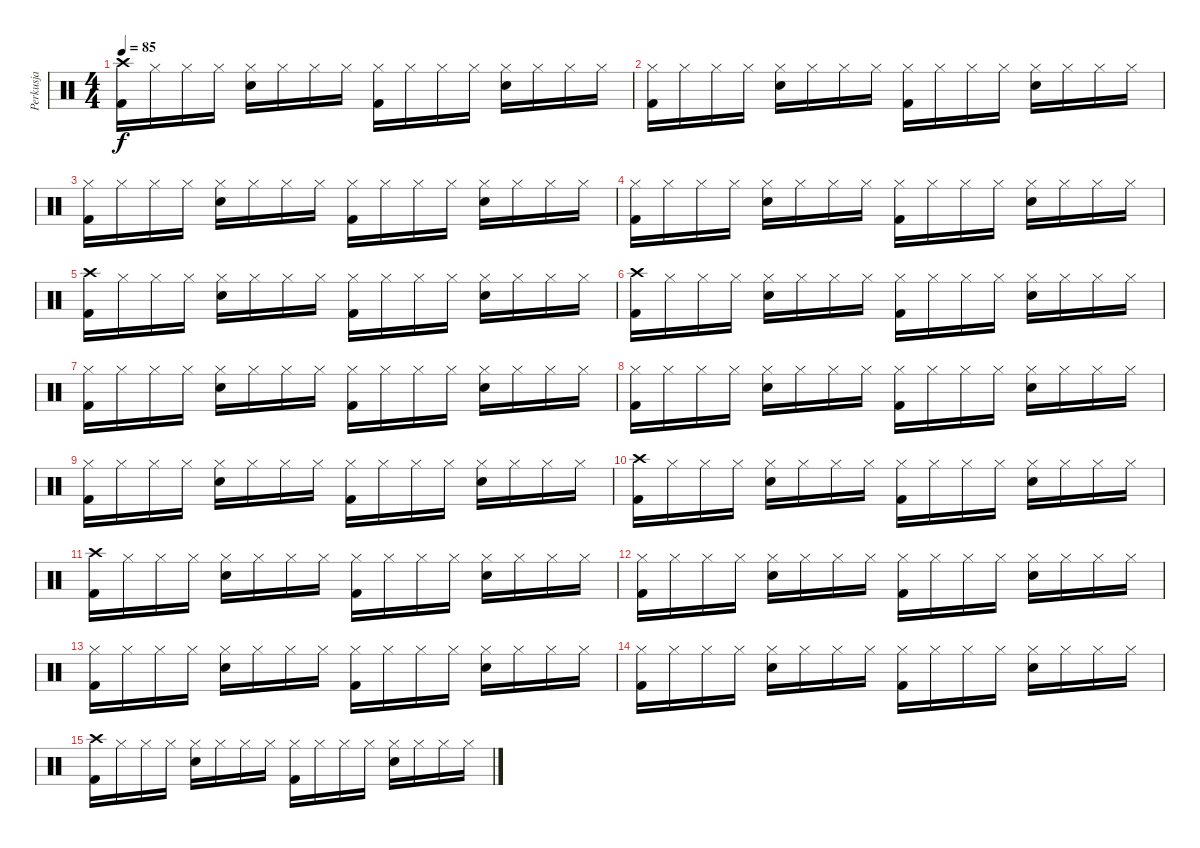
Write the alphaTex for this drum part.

\track ("Perkusja" "Perkusja") {instrument percussion}
\staff {score}
\articulation defaults
\ts (4 4)
\tempo 85
\clef neutral
\ks c
("Crash high (hit)" "Kick (hit) 2").16{dy f} "Hi-Hat (closed)".16 "Hi-Hat (closed)".16 "Hi-Hat (closed)".16 ("Hi-Hat (closed)" "Electric Snare (hit)").16 "Hi-Hat (closed)".16 "Hi-Hat (closed)".16 "Hi-Hat (closed)".16 ("Hi-Hat (closed)" "Kick (hit) 2").16 "Hi-Hat (closed)".16 "Hi-Hat (closed)".16 "Hi-Hat (closed)".16 ("Hi-Hat (closed)" "Electric Snare (hit)").16 "Hi-Hat (closed)".16 "Hi-Hat (closed)".16 "Hi-Hat (closed)".16 |
("Hi-Hat (closed)" "Kick (hit) 2").16 "Hi-Hat (closed)".16 "Hi-Hat (closed)".16 "Hi-Hat (closed)".16 ("Hi-Hat (closed)" "Electric Snare (hit)").16 "Hi-Hat (closed)".16 "Hi-Hat (closed)".16 "Hi-Hat (closed)".16 ("Hi-Hat (closed)" "Kick (hit) 2").16 "Hi-Hat (closed)".16 "Hi-Hat (closed)".16 "Hi-Hat (closed)".16 ("Hi-Hat (closed)" "Electric Snare (hit)").16 "Hi-Hat (closed)".16 "Hi-Hat (closed)".16 "Hi-Hat (closed)".16 |
("Hi-Hat (closed)" "Kick (hit) 2").16 "Hi-Hat (closed)".16 "Hi-Hat (closed)".16 "Hi-Hat (closed)".16 ("Hi-Hat (closed)" "Electric Snare (hit)").16 "Hi-Hat (closed)".16 "Hi-Hat (closed)".16 "Hi-Hat (closed)".16 ("Hi-Hat (closed)" "Kick (hit) 2").16 "Hi-Hat (closed)".16 "Hi-Hat (closed)".16 "Hi-Hat (closed)".16 ("Hi-Hat (closed)" "Electric Snare (hit)").16 "Hi-Hat (closed)".16 "Hi-Hat (closed)".16 "Hi-Hat (closed)".16 |
("Hi-Hat (closed)" "Kick (hit) 2").16 "Hi-Hat (closed)".16 "Hi-Hat (closed)".16 "Hi-Hat (closed)".16 ("Hi-Hat (closed)" "Electric Snare (hit)").16 "Hi-Hat (closed)".16 "Hi-Hat (closed)".16 "Hi-Hat (closed)".16 ("Hi-Hat (closed)" "Kick (hit) 2").16 "Hi-Hat (closed)".16 "Hi-Hat (closed)".16 "Hi-Hat (closed)".16 ("Hi-Hat (closed)" "Electric Snare (hit)").16 "Hi-Hat (closed)".16 "Hi-Hat (closed)".16 "Hi-Hat (closed)".16 |
("Crash high (hit)" "Kick (hit) 2").16 "Hi-Hat (closed)".16 "Hi-Hat (closed)".16 "Hi-Hat (closed)".16 ("Hi-Hat (closed)" "Electric Snare (hit)").16 "Hi-Hat (closed)".16 "Hi-Hat (closed)".16 "Hi-Hat (closed)".16 ("Hi-Hat (closed)" "Kick (hit) 2").16 "Hi-Hat (closed)".16 "Hi-Hat (closed)".16 "Hi-Hat (closed)".16 ("Hi-Hat (closed)" "Electric Snare (hit)").16 "Hi-Hat (closed)".16 "Hi-Hat (closed)".16 "Hi-Hat (closed)".16 |
("Crash high (hit)" "Kick (hit) 2").16 "Hi-Hat (closed)".16 "Hi-Hat (closed)".16 "Hi-Hat (closed)".16 ("Hi-Hat (closed)" "Electric Snare (hit)").16 "Hi-Hat (closed)".16 "Hi-Hat (closed)".16 "Hi-Hat (closed)".16 ("Hi-Hat (closed)" "Kick (hit) 2").16 "Hi-Hat (closed)".16 "Hi-Hat (closed)".16 "Hi-Hat (closed)".16 ("Hi-Hat (closed)" "Electric Snare (hit)").16 "Hi-Hat (closed)".16 "Hi-Hat (closed)".16 "Hi-Hat (closed)".16 |
("Hi-Hat (closed)" "Kick (hit) 2").16 "Hi-Hat (closed)".16 "Hi-Hat (closed)".16 "Hi-Hat (closed)".16 ("Hi-Hat (closed)" "Electric Snare (hit)").16 "Hi-Hat (closed)".16 "Hi-Hat (closed)".16 "Hi-Hat (closed)".16 ("Hi-Hat (closed)" "Kick (hit) 2").16 "Hi-Hat (closed)".16 "Hi-Hat (closed)".16 "Hi-Hat (closed)".16 ("Hi-Hat (closed)" "Electric Snare (hit)").16 "Hi-Hat (closed)".16 "Hi-Hat (closed)".16 "Hi-Hat (closed)".16 |
("Hi-Hat (closed)" "Kick (hit) 2").16 "Hi-Hat (closed)".16 "Hi-Hat (closed)".16 "Hi-Hat (closed)".16 ("Hi-Hat (closed)" "Electric Snare (hit)").16 "Hi-Hat (closed)".16 "Hi-Hat (closed)".16 "Hi-Hat (closed)".16 ("Hi-Hat (closed)" "Kick (hit) 2").16 "Hi-Hat (closed)".16 "Hi-Hat (closed)".16 "Hi-Hat (closed)".16 ("Hi-Hat (closed)" "Electric Snare (hit)").16 "Hi-Hat (closed)".16 "Hi-Hat (closed)".16 "Hi-Hat (closed)".16 |
("Hi-Hat (closed)" "Kick (hit) 2").16 "Hi-Hat (closed)".16 "Hi-Hat (closed)".16 "Hi-Hat (closed)".16 ("Hi-Hat (closed)" "Electric Snare (hit)").16 "Hi-Hat (closed)".16 "Hi-Hat (closed)".16 "Hi-Hat (closed)".16 ("Hi-Hat (closed)" "Kick (hit) 2").16 "Hi-Hat (closed)".16 "Hi-Hat (closed)".16 "Hi-Hat (closed)".16 ("Hi-Hat (closed)" "Electric Snare (hit)").16 "Hi-Hat (closed)".16 "Hi-Hat (closed)".16 "Hi-Hat (closed)".16 |
("Crash high (hit)" "Kick (hit) 2").16 "Hi-Hat (closed)".16 "Hi-Hat (closed)".16 "Hi-Hat (closed)".16 ("Hi-Hat (closed)" "Electric Snare (hit)").16 "Hi-Hat (closed)".16 "Hi-Hat (closed)".16 "Hi-Hat (closed)".16 ("Hi-Hat (closed)" "Kick (hit) 2").16 "Hi-Hat (closed)".16 "Hi-Hat (closed)".16 "Hi-Hat (closed)".16 ("Hi-Hat (closed)" "Electric Snare (hit)").16 "Hi-Hat (closed)".16 "Hi-Hat (closed)".16 "Hi-Hat (closed)".16 |
("Crash high (hit)" "Kick (hit) 2").16 "Hi-Hat (closed)".16 "Hi-Hat (closed)".16 "Hi-Hat (closed)".16 ("Hi-Hat (closed)" "Electric Snare (hit)").16 "Hi-Hat (closed)".16 "Hi-Hat (closed)".16 "Hi-Hat (closed)".16 ("Hi-Hat (closed)" "Kick (hit) 2").16 "Hi-Hat (closed)".16 "Hi-Hat (closed)".16 "Hi-Hat (closed)".16 ("Hi-Hat (closed)" "Electric Snare (hit)").16 "Hi-Hat (closed)".16 "Hi-Hat (closed)".16 "Hi-Hat (closed)".16 |
("Hi-Hat (closed)" "Kick (hit) 2").16 "Hi-Hat (closed)".16 "Hi-Hat (closed)".16 "Hi-Hat (closed)".16 ("Hi-Hat (closed)" "Electric Snare (hit)").16 "Hi-Hat (closed)".16 "Hi-Hat (closed)".16 "Hi-Hat (closed)".16 ("Hi-Hat (closed)" "Kick (hit) 2").16 "Hi-Hat (closed)".16 "Hi-Hat (closed)".16 "Hi-Hat (closed)".16 ("Hi-Hat (closed)" "Electric Snare (hit)").16 "Hi-Hat (closed)".16 "Hi-Hat (closed)".16 "Hi-Hat (closed)".16 |
("Hi-Hat (closed)" "Kick (hit) 2").16 "Hi-Hat (closed)".16 "Hi-Hat (closed)".16 "Hi-Hat (closed)".16 ("Hi-Hat (closed)" "Electric Snare (hit)").16 "Hi-Hat (closed)".16 "Hi-Hat (closed)".16 "Hi-Hat (closed)".16 ("Hi-Hat (closed)" "Kick (hit) 2").16 "Hi-Hat (closed)".16 "Hi-Hat (closed)".16 "Hi-Hat (closed)".16 ("Hi-Hat (closed)" "Electric Snare (hit)").16 "Hi-Hat (closed)".16 "Hi-Hat (closed)".16 "Hi-Hat (closed)".16 |
("Hi-Hat (closed)" "Kick (hit) 2").16 "Hi-Hat (closed)".16 "Hi-Hat (closed)".16 "Hi-Hat (closed)".16 ("Hi-Hat (closed)" "Electric Snare (hit)").16 "Hi-Hat (closed)".16 "Hi-Hat (closed)".16 "Hi-Hat (closed)".16 ("Hi-Hat (closed)" "Kick (hit) 2").16 "Hi-Hat (closed)".16 "Hi-Hat (closed)".16 "Hi-Hat (closed)".16 ("Hi-Hat (closed)" "Electric Snare (hit)").16 "Hi-Hat (closed)".16 "Hi-Hat (closed)".16 "Hi-Hat (closed)".16 |
("Crash high (hit)" "Kick (hit) 2").16 "Hi-Hat (closed)".16 "Hi-Hat (closed)".16 "Hi-Hat (closed)".16 ("Hi-Hat (closed)" "Electric Snare (hit)").16 "Hi-Hat (closed)".16 "Hi-Hat (closed)".16 "Hi-Hat (closed)".16 ("Hi-Hat (closed)" "Kick (hit) 2").16 "Hi-Hat (closed)".16 "Hi-Hat (closed)".16 "Hi-Hat (closed)".16 ("Hi-Hat (closed)" "Electric Snare (hit)").16 "Hi-Hat (closed)".16 "Hi-Hat (closed)".16 "Hi-Hat (closed)".16
